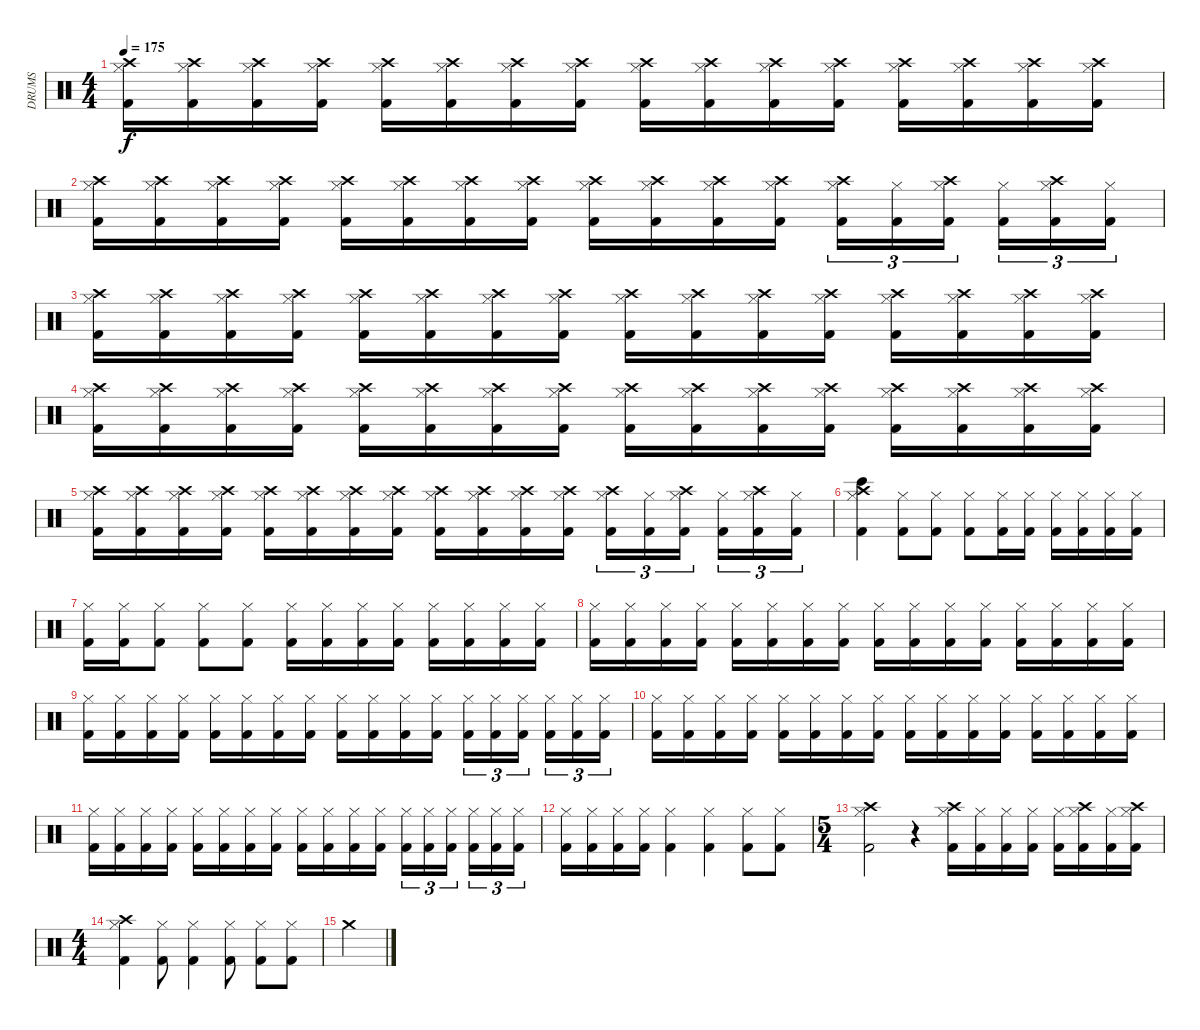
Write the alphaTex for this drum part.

\track ("DRUMS" "DRUMS") {instrument percussion}
\staff {score}
\articulation defaults
\ts (4 4)
\tempo 175
\clef neutral
\ks c
("Crash high (hit)" "Kick (hit) 2" "Hi-Hat (closed)").16{dy f} ("Crash high (hit)" "Kick (hit) 2" "Hi-Hat (closed)").16 ("Crash high (hit)" "Kick (hit) 2" "Hi-Hat (closed)").16 ("Crash high (hit)" "Kick (hit) 2" "Hi-Hat (closed)").16 ("Crash high (hit)" "Kick (hit) 2" "Hi-Hat (closed)").16 ("Crash high (hit)" "Kick (hit) 2" "Hi-Hat (closed)").16 ("Crash high (hit)" "Kick (hit) 2" "Hi-Hat (closed)").16 ("Crash high (hit)" "Kick (hit) 2" "Hi-Hat (closed)").16 ("Crash high (hit)" "Kick (hit) 2" "Hi-Hat (closed)").16 ("Crash high (hit)" "Kick (hit) 2" "Hi-Hat (closed)").16 ("Crash high (hit)" "Kick (hit) 2" "Hi-Hat (closed)").16 ("Crash high (hit)" "Kick (hit) 2" "Hi-Hat (closed)").16 ("Crash high (hit)" "Kick (hit) 2" "Hi-Hat (closed)").16 ("Crash high (hit)" "Kick (hit) 2" "Hi-Hat (closed)").16 ("Crash high (hit)" "Kick (hit) 2" "Hi-Hat (closed)").16 ("Crash high (hit)" "Kick (hit) 2" "Hi-Hat (closed)").16 |
("Crash high (hit)" "Kick (hit) 2" "Hi-Hat (closed)").16 ("Crash high (hit)" "Kick (hit) 2" "Hi-Hat (closed)").16 ("Crash high (hit)" "Kick (hit) 2" "Hi-Hat (closed)").16 ("Crash high (hit)" "Kick (hit) 2" "Hi-Hat (closed)").16 ("Crash high (hit)" "Kick (hit) 2" "Hi-Hat (closed)").16 ("Crash high (hit)" "Kick (hit) 2" "Hi-Hat (closed)").16 ("Crash high (hit)" "Kick (hit) 2" "Hi-Hat (closed)").16 ("Crash high (hit)" "Kick (hit) 2" "Hi-Hat (closed)").16 ("Crash high (hit)" "Kick (hit) 2" "Hi-Hat (closed)").16 ("Crash high (hit)" "Kick (hit) 2" "Hi-Hat (closed)").16 ("Crash high (hit)" "Kick (hit) 2" "Hi-Hat (closed)").16 ("Crash high (hit)" "Kick (hit) 2" "Hi-Hat (closed)").16 ("Crash high (hit)" "Kick (hit) 2" "Hi-Hat (closed)").16{tu (3 2)} ("Kick (hit) 2" "Hi-Hat (closed)").16{tu (3 2)} ("Crash high (hit)" "Kick (hit) 2" "Hi-Hat (closed)").16{tu (3 2)} ("Kick (hit) 2" "Hi-Hat (closed)").16{tu (3 2)} ("Crash high (hit)" "Kick (hit) 2" "Hi-Hat (closed)").16{tu (3 2)} ("Kick (hit) 2" "Hi-Hat (closed)").16{tu (3 2)} |
("Crash high (hit)" "Kick (hit) 2" "Hi-Hat (closed)").16 ("Crash high (hit)" "Kick (hit) 2" "Hi-Hat (closed)").16 ("Crash high (hit)" "Kick (hit) 2" "Hi-Hat (closed)").16 ("Crash high (hit)" "Kick (hit) 2" "Hi-Hat (closed)").16 ("Crash high (hit)" "Kick (hit) 2" "Hi-Hat (closed)").16 ("Crash high (hit)" "Kick (hit) 2" "Hi-Hat (closed)").16 ("Crash high (hit)" "Kick (hit) 2" "Hi-Hat (closed)").16 ("Crash high (hit)" "Kick (hit) 2" "Hi-Hat (closed)").16 ("Crash high (hit)" "Kick (hit) 2" "Hi-Hat (closed)").16 ("Crash high (hit)" "Kick (hit) 2" "Hi-Hat (closed)").16 ("Crash high (hit)" "Kick (hit) 2" "Hi-Hat (closed)").16 ("Crash high (hit)" "Kick (hit) 2" "Hi-Hat (closed)").16 ("Crash high (hit)" "Kick (hit) 2" "Hi-Hat (closed)").16 ("Crash high (hit)" "Kick (hit) 2" "Hi-Hat (closed)").16 ("Crash high (hit)" "Kick (hit) 2" "Hi-Hat (closed)").16 ("Crash high (hit)" "Kick (hit) 2" "Hi-Hat (closed)").16 |
("Crash high (hit)" "Kick (hit) 2" "Hi-Hat (closed)").16 ("Crash high (hit)" "Kick (hit) 2" "Hi-Hat (closed)").16 ("Crash high (hit)" "Kick (hit) 2" "Hi-Hat (closed)").16 ("Crash high (hit)" "Kick (hit) 2" "Hi-Hat (closed)").16 ("Crash high (hit)" "Kick (hit) 2" "Hi-Hat (closed)").16 ("Crash high (hit)" "Kick (hit) 2" "Hi-Hat (closed)").16 ("Crash high (hit)" "Kick (hit) 2" "Hi-Hat (closed)").16 ("Crash high (hit)" "Kick (hit) 2" "Hi-Hat (closed)").16 ("Crash high (hit)" "Kick (hit) 2" "Hi-Hat (closed)").16 ("Crash high (hit)" "Kick (hit) 2" "Hi-Hat (closed)").16 ("Crash high (hit)" "Kick (hit) 2" "Hi-Hat (closed)").16 ("Crash high (hit)" "Kick (hit) 2" "Hi-Hat (closed)").16 ("Crash high (hit)" "Kick (hit) 2" "Hi-Hat (closed)").16 ("Crash high (hit)" "Kick (hit) 2" "Hi-Hat (closed)").16 ("Crash high (hit)" "Kick (hit) 2" "Hi-Hat (closed)").16 ("Crash high (hit)" "Kick (hit) 2" "Hi-Hat (closed)").16 |
("Crash high (hit)" "Kick (hit) 2" "Hi-Hat (closed)").16 ("Crash high (hit)" "Kick (hit) 2" "Hi-Hat (closed)").16 ("Crash high (hit)" "Kick (hit) 2" "Hi-Hat (closed)").16 ("Crash high (hit)" "Kick (hit) 2" "Hi-Hat (closed)").16 ("Crash high (hit)" "Kick (hit) 2" "Hi-Hat (closed)").16 ("Crash high (hit)" "Kick (hit) 2" "Hi-Hat (closed)").16 ("Crash high (hit)" "Kick (hit) 2" "Hi-Hat (closed)").16 ("Crash high (hit)" "Kick (hit) 2" "Hi-Hat (closed)").16 ("Crash high (hit)" "Kick (hit) 2" "Hi-Hat (closed)").16 ("Crash high (hit)" "Kick (hit) 2" "Hi-Hat (closed)").16 ("Crash high (hit)" "Kick (hit) 2" "Hi-Hat (closed)").16 ("Crash high (hit)" "Kick (hit) 2" "Hi-Hat (closed)").16 ("Crash high (hit)" "Kick (hit) 2" "Hi-Hat (closed)").16{tu (3 2)} ("Kick (hit) 2" "Hi-Hat (closed)").16{tu (3 2)} ("Crash high (hit)" "Kick (hit) 2" "Hi-Hat (closed)").16{tu (3 2)} ("Kick (hit) 2" "Hi-Hat (closed)").16{tu (3 2)} ("Crash high (hit)" "Kick (hit) 2" "Hi-Hat (closed)").16{tu (3 2)} ("Kick (hit) 2" "Hi-Hat (closed)").16{tu (3 2)} |
("Crash high (hit)" "Bongo High (hit)" "Hi-Hat (closed)" "Kick (hit) 2").4 ("Kick (hit) 2" "Hi-Hat (closed)").8 ("Kick (hit) 2" "Hi-Hat (closed)").8 ("Kick (hit) 2" "Hi-Hat (closed)").8 ("Kick (hit) 2" "Hi-Hat (closed)").16 ("Kick (hit) 2" "Hi-Hat (closed)").16 ("Kick (hit) 2" "Hi-Hat (closed)").16 ("Kick (hit) 2" "Hi-Hat (closed)").16 ("Kick (hit) 2" "Hi-Hat (closed)").16 ("Kick (hit) 2" "Hi-Hat (closed)").16 |
("Kick (hit) 2" "Hi-Hat (closed)").16 ("Kick (hit) 2" "Hi-Hat (closed)").16 ("Kick (hit) 2" "Hi-Hat (closed)").8 ("Kick (hit) 2" "Hi-Hat (closed)").8 ("Kick (hit) 2" "Hi-Hat (closed)").8 ("Kick (hit) 2" "Hi-Hat (closed)").16 ("Kick (hit) 2" "Hi-Hat (closed)").16 ("Kick (hit) 2" "Hi-Hat (closed)").16 ("Kick (hit) 2" "Hi-Hat (closed)").16 ("Kick (hit) 2" "Hi-Hat (closed)").16 ("Kick (hit) 2" "Hi-Hat (closed)").16 ("Kick (hit) 2" "Hi-Hat (closed)").16 ("Kick (hit) 2" "Hi-Hat (closed)").16 |
("Kick (hit) 2" "Hi-Hat (closed)").16 ("Kick (hit) 2" "Hi-Hat (closed)").16 ("Kick (hit) 2" "Hi-Hat (closed)").16 ("Kick (hit) 2" "Hi-Hat (closed)").16 ("Kick (hit) 2" "Hi-Hat (closed)").16 ("Kick (hit) 2" "Hi-Hat (closed)").16 ("Kick (hit) 2" "Hi-Hat (closed)").16 ("Kick (hit) 2" "Hi-Hat (closed)").16 ("Kick (hit) 2" "Hi-Hat (closed)").16 ("Kick (hit) 2" "Hi-Hat (closed)").16 ("Kick (hit) 2" "Hi-Hat (closed)").16 ("Kick (hit) 2" "Hi-Hat (closed)").16 ("Kick (hit) 2" "Hi-Hat (closed)").16 ("Kick (hit) 2" "Hi-Hat (closed)").16 ("Kick (hit) 2" "Hi-Hat (closed)").16 ("Kick (hit) 2" "Hi-Hat (closed)").16 |
("Kick (hit) 2" "Hi-Hat (closed)").16 ("Kick (hit) 2" "Hi-Hat (closed)").16 ("Kick (hit) 2" "Hi-Hat (closed)").16 ("Kick (hit) 2" "Hi-Hat (closed)").16 ("Kick (hit) 2" "Hi-Hat (closed)").16 ("Kick (hit) 2" "Hi-Hat (closed)").16 ("Kick (hit) 2" "Hi-Hat (closed)").16 ("Kick (hit) 2" "Hi-Hat (closed)").16 ("Kick (hit) 2" "Hi-Hat (closed)").16 ("Kick (hit) 2" "Hi-Hat (closed)").16 ("Kick (hit) 2" "Hi-Hat (closed)").16 ("Kick (hit) 2" "Hi-Hat (closed)").16 ("Kick (hit) 2" "Hi-Hat (closed)").16{tu (3 2)} ("Kick (hit) 2" "Hi-Hat (closed)").16{tu (3 2)} ("Kick (hit) 2" "Hi-Hat (closed)").16{tu (3 2)} ("Kick (hit) 2" "Hi-Hat (closed)").16{tu (3 2)} ("Kick (hit) 2" "Hi-Hat (closed)").16{tu (3 2)} ("Kick (hit) 2" "Hi-Hat (closed)").16{tu (3 2)} |
("Kick (hit) 2" "Hi-Hat (closed)").16 ("Kick (hit) 2" "Hi-Hat (closed)").16 ("Kick (hit) 2" "Hi-Hat (closed)").16 ("Kick (hit) 2" "Hi-Hat (closed)").16 ("Kick (hit) 2" "Hi-Hat (closed)").16 ("Kick (hit) 2" "Hi-Hat (closed)").16 ("Kick (hit) 2" "Hi-Hat (closed)").16 ("Kick (hit) 2" "Hi-Hat (closed)").16 ("Kick (hit) 2" "Hi-Hat (closed)").16 ("Kick (hit) 2" "Hi-Hat (closed)").16 ("Kick (hit) 2" "Hi-Hat (closed)").16 ("Kick (hit) 2" "Hi-Hat (closed)").16 ("Kick (hit) 2" "Hi-Hat (closed)").16 ("Kick (hit) 2" "Hi-Hat (closed)").16 ("Kick (hit) 2" "Hi-Hat (closed)").16 ("Kick (hit) 2" "Hi-Hat (closed)").16 |
("Kick (hit) 2" "Hi-Hat (closed)").16 ("Kick (hit) 2" "Hi-Hat (closed)").16 ("Kick (hit) 2" "Hi-Hat (closed)").16 ("Kick (hit) 2" "Hi-Hat (closed)").16 ("Kick (hit) 2" "Hi-Hat (closed)").16 ("Kick (hit) 2" "Hi-Hat (closed)").16 ("Kick (hit) 2" "Hi-Hat (closed)").16 ("Kick (hit) 2" "Hi-Hat (closed)").16 ("Kick (hit) 2" "Hi-Hat (closed)").16 ("Kick (hit) 2" "Hi-Hat (closed)").16 ("Kick (hit) 2" "Hi-Hat (closed)").16 ("Kick (hit) 2" "Hi-Hat (closed)").16 ("Kick (hit) 2" "Hi-Hat (closed)").16{tu (3 2)} ("Kick (hit) 2" "Hi-Hat (closed)").16{tu (3 2)} ("Kick (hit) 2" "Hi-Hat (closed)").16{tu (3 2)} ("Kick (hit) 2" "Hi-Hat (closed)").16{tu (3 2)} ("Kick (hit) 2" "Hi-Hat (closed)").16{tu (3 2)} ("Kick (hit) 2" "Hi-Hat (closed)").16{tu (3 2)} |
("Hi-Hat (closed)" "Kick (hit) 2").16 ("Hi-Hat (closed)" "Kick (hit) 2").16 ("Hi-Hat (closed)" "Kick (hit) 2").16 ("Hi-Hat (closed)" "Kick (hit) 2").16 ("Hi-Hat (closed)" "Kick (hit) 2").4 ("Hi-Hat (closed)" "Kick (hit) 2").4 ("Hi-Hat (closed)" "Kick (hit) 2").8 ("Hi-Hat (closed)" "Kick (hit) 2").8 |
\ts (5 4)
("Crash high (hit)" "Hi-Hat (closed)" "Kick (hit) 2").2 r.4 ("Crash high (hit)" "Kick (hit) 2" "Hi-Hat (closed)").16 ("Kick (hit) 2" "Hi-Hat (closed)").16 ("Kick (hit) 2" "Hi-Hat (closed)").16 ("Kick (hit) 2" "Hi-Hat (closed)").16 ("Kick (hit) 2" "Hi-Hat (closed)").16 ("Crash high (hit)" "Kick (hit) 2" "Hi-Hat (closed)").16 ("Kick (hit) 2" "Hi-Hat (closed)").16 ("Crash high (hit)" "Kick (hit) 2" "Hi-Hat (closed)").16 |
\ts (4 4)
("Crash high (hit)" "Hi-Hat (closed)" "Kick (hit) 2").4 ("Hi-Hat (closed)" "Kick (hit) 2").8 ("Hi-Hat (closed)" "Kick (hit) 2").4 ("Hi-Hat (closed)" "Kick (hit) 2").8 ("Hi-Hat (closed)" "Kick (hit) 2").8 ("Hi-Hat (closed)" "Kick (hit) 2").8 |
"Crash medium (hit)".4
